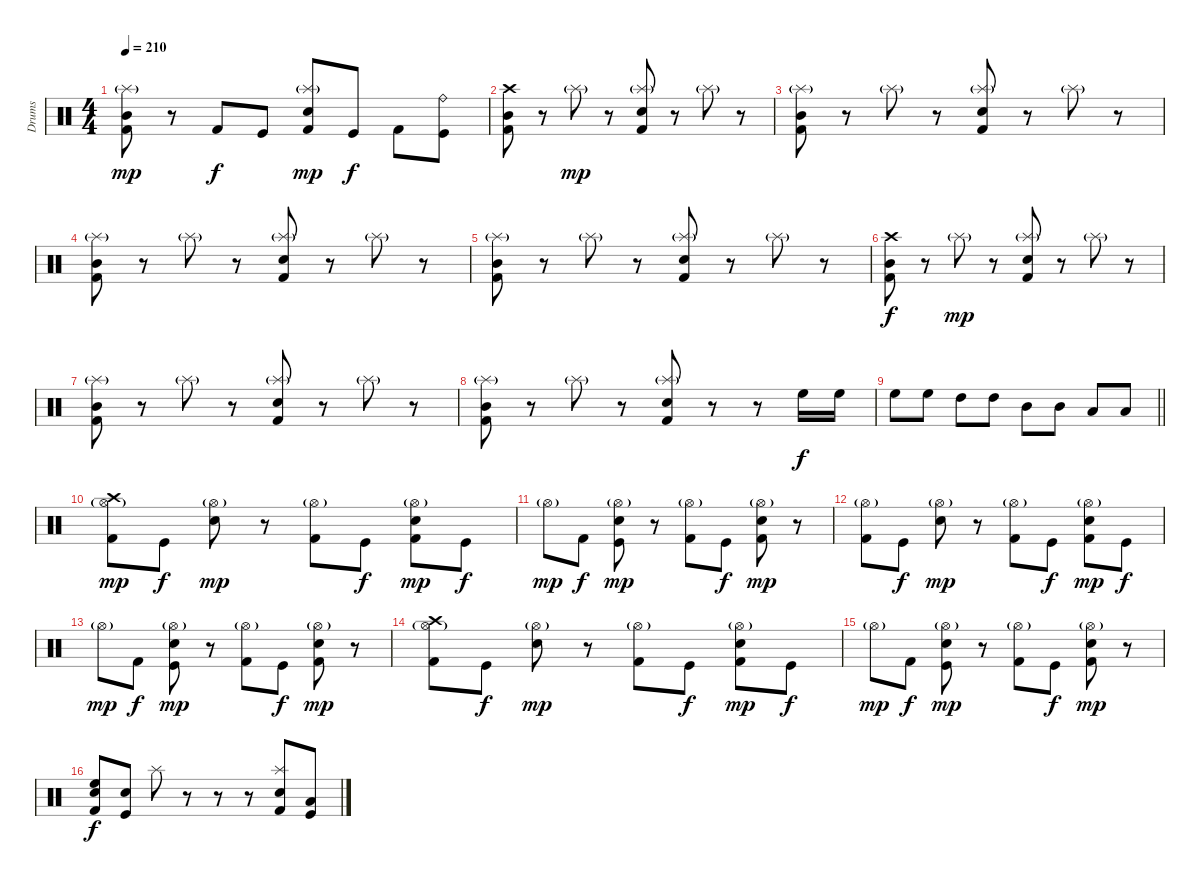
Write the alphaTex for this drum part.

\track ("Drums" "Drums") {instrument percussion}
\staff {score}
\articulation defaults
\ts (4 4)
\tempo 210
\clef neutral
\ks c
("Kick (hit) 2" "Mid Tom (hit)" "Splash (hit)"{g}).8{dy mp} r.8 "Kick (hit) 2".8{dy f} "Kick (hit)".8 ("Kick (hit) 2" "Electric Snare (hit)" "Splash (hit)"{g}).8{dy mp} "Kick (hit)".8{dy f} "Kick (hit) 2".8 ("Kick (hit)" "Ride (bell)").8 |
("Kick (hit) 2" "Mid Tom (hit)" "Crash high (hit)").8 r.8 "Splash (hit)"{g}.8{dy mp} r.8 ("Kick (hit) 2" "Electric Snare (hit)" "Splash (hit)"{g}).8 r.8 "Splash (hit)"{g}.8 r.8 |
("Kick (hit) 2" "Mid Tom (hit)" "Splash (hit)"{g}).8 r.8 "Splash (hit)"{g}.8 r.8 ("Kick (hit) 2" "Electric Snare (hit)" "Splash (hit)"{g}).8 r.8 "Splash (hit)"{g}.8 r.8 |
("Kick (hit) 2" "Mid Tom (hit)" "Splash (hit)"{g}).8 r.8 "Splash (hit)"{g}.8 r.8 ("Kick (hit) 2" "Electric Snare (hit)" "Splash (hit)"{g}).8 r.8 "Splash (hit)"{g}.8 r.8 |
("Kick (hit) 2" "Mid Tom (hit)" "Splash (hit)"{g}).8 r.8 "Splash (hit)"{g}.8 r.8 ("Kick (hit) 2" "Electric Snare (hit)" "Splash (hit)"{g}).8 r.8 "Splash (hit)"{g}.8 r.8 |
("Kick (hit) 2" "Mid Tom (hit)" "Crash high (hit)").8{dy f} r.8 "Splash (hit)"{g}.8{dy mp} r.8 ("Kick (hit) 2" "Electric Snare (hit)" "Splash (hit)"{g}).8 r.8 "Splash (hit)"{g}.8 r.8 |
("Kick (hit) 2" "Mid Tom (hit)" "Splash (hit)"{g}).8 r.8 "Splash (hit)"{g}.8 r.8 ("Kick (hit) 2" "Electric Snare (hit)" "Splash (hit)"{g}).8 r.8 "Splash (hit)"{g}.8 r.8 |
("Kick (hit) 2" "Mid Tom (hit)" "Splash (hit)"{g}).8 r.8 "Splash (hit)"{g}.8 r.8 ("Kick (hit) 2" "Electric Snare (hit)" "Splash (hit)"{g}).8 r.8 r.8 "High Floor Tom (hit)".16{dy f} "High Floor Tom (hit)".16 |
\barLineRight lightlight "High Floor Tom (hit)".8 "High Floor Tom (hit)".8 "High Tom (hit)".8 "High Tom (hit)".8 "Mid Tom (hit)".8 "Mid Tom (hit)".8 "Low Tom (hit)".8 "Low Tom (hit)".8
|
("Kick (hit) 2" "Crash high (hit)" "Hi-Hat (open)"{g}).8{dy mp} "Kick (hit)".8{dy f} ("Electric Snare (hit)" "Hi-Hat (open)"{g}).8{dy mp} r.8 ("Kick (hit) 2" "Hi-Hat (open)"{g}).8 "Kick (hit)".8{dy f} ("Kick (hit) 2" "Electric Snare (hit)" "Hi-Hat (open)"{g}).8{dy mp} "Kick (hit)".8{dy f} |
"Hi-Hat (open)"{g}.8{dy mp} "Kick (hit) 2".8{dy f} ("Kick (hit)" "Electric Snare (hit)" "Hi-Hat (open)"{g}).8{dy mp} r.8 ("Kick (hit) 2" "Hi-Hat (open)"{g}).8 "Kick (hit)".8{dy f} ("Kick (hit) 2" "Electric Snare (hit)" "Hi-Hat (open)"{g}).8{dy mp} r.8 |
("Kick (hit) 2" "Hi-Hat (open)"{g}).8 "Kick (hit)".8{dy f} ("Electric Snare (hit)" "Hi-Hat (open)"{g}).8{dy mp} r.8 ("Kick (hit) 2" "Hi-Hat (open)"{g}).8 "Kick (hit)".8{dy f} ("Kick (hit) 2" "Electric Snare (hit)" "Hi-Hat (open)"{g}).8{dy mp} "Kick (hit)".8{dy f} |
"Hi-Hat (open)"{g}.8{dy mp} "Kick (hit) 2".8{dy f} ("Kick (hit)" "Electric Snare (hit)" "Hi-Hat (open)"{g}).8{dy mp} r.8 ("Kick (hit) 2" "Hi-Hat (open)"{g}).8 "Kick (hit)".8{dy f} ("Kick (hit) 2" "Electric Snare (hit)" "Hi-Hat (open)"{g}).8{dy mp} r.8 |
("Kick (hit) 2" "Crash high (hit)" "Hi-Hat (open)"{g}).8 "Kick (hit)".8{dy f} ("Electric Snare (hit)" "Hi-Hat (open)"{g}).8{dy mp} r.8 ("Kick (hit) 2" "Hi-Hat (open)"{g}).8 "Kick (hit)".8{dy f} ("Kick (hit) 2" "Electric Snare (hit)" "Hi-Hat (open)"{g}).8{dy mp} "Kick (hit)".8{dy f} |
"Hi-Hat (open)"{g}.8{dy mp} "Kick (hit) 2".8{dy f} ("Kick (hit)" "Electric Snare (hit)" "Hi-Hat (open)"{g}).8{dy mp} r.8 ("Kick (hit) 2" "Hi-Hat (open)"{g}).8 "Kick (hit)".8{dy f} ("Kick (hit) 2" "Electric Snare (hit)" "Hi-Hat (open)"{g}).8{dy mp} r.8 |
("Kick (hit) 2" "Electric Snare (hit)" "High Floor Tom (hit)").8{dy f} ("Kick (hit)" "Electric Snare (hit)").8 "Splash (hit)".8 r.8 r.8 r.8 ("Kick (hit) 2" "Electric Snare (hit)" "Splash (hit)").8 ("Kick (hit)" "Low Tom (hit)").8
